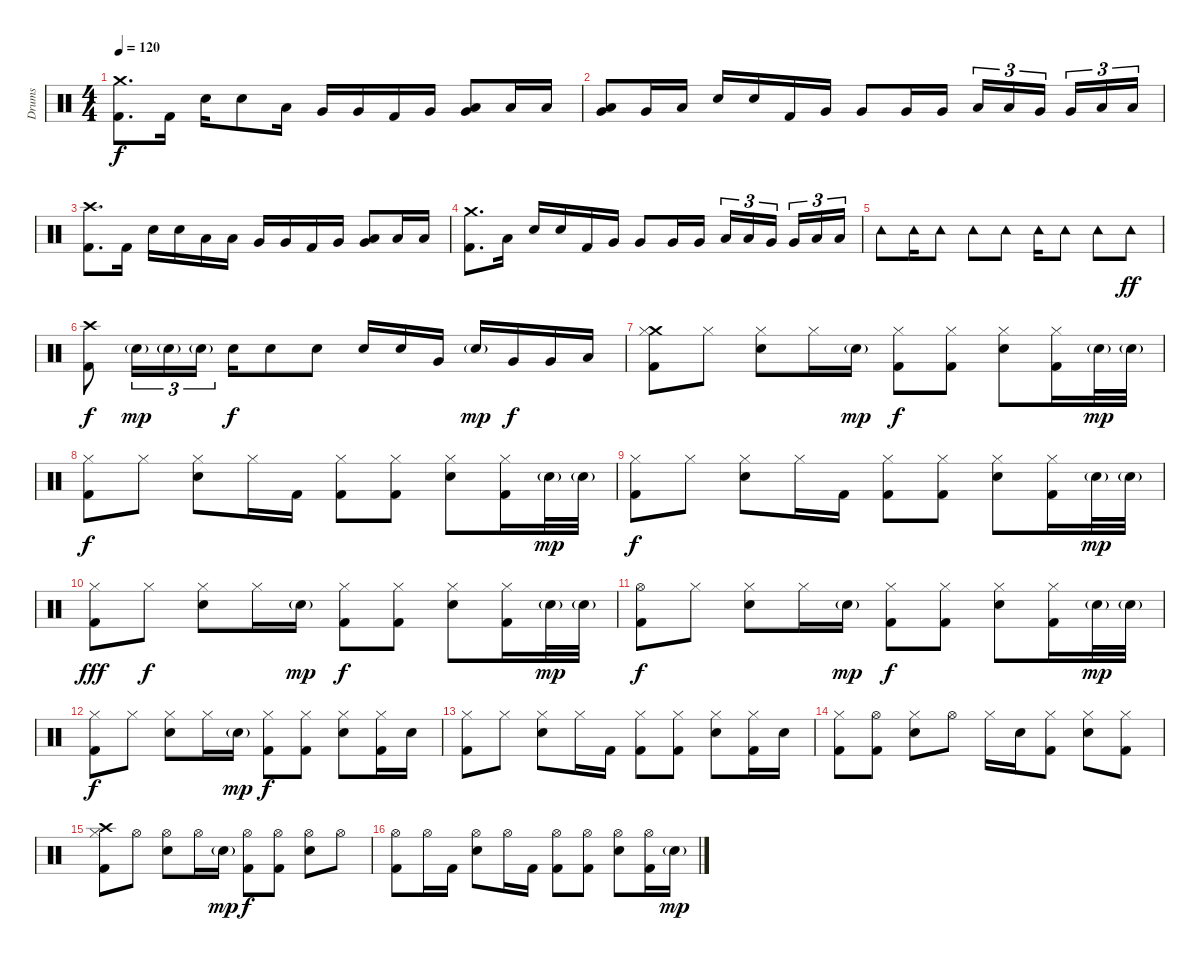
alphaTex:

\track ("Drums" "Drums") {instrument percussion}
\staff {score}
\articulation defaults
\ts (4 4)
\tempo 120
\clef neutral
\ks c
("Crash medium (hit)" "Kick (hit) 2").8{d dy f} "Kick (hit) 2".16 "Electric Snare (hit)".16 "Electric Snare (hit)".8 "Low Floor Tom (hit)".16 "Very Low Tom (hit)".16 "Very Low Tom (hit)".16 "Kick (hit) 2".16 "Very Low Tom (hit)".16 ("Very Low Tom (hit)" "Low Floor Tom (hit)").8 "Low Floor Tom (hit)".16 "Low Floor Tom (hit)".16 |
("Very Low Tom (hit)" "Low Floor Tom (hit)").8 "Very Low Tom (hit)".16 "Low Floor Tom (hit)".16 "Electric Snare (hit)".16 "Electric Snare (hit)".16 "Kick (hit) 2".16 "Very Low Tom (hit)".16 "Very Low Tom (hit)".8 "Very Low Tom (hit)".16 "Very Low Tom (hit)".16 "Low Tom (hit)".16{tu (3 2)} "Low Tom (hit)".16{tu (3 2)} "Very Low Tom (hit)".16{tu (3 2) beam splitsecondary} "Very Low Tom (hit)".16{tu (3 2)} "Low Floor Tom (hit)".16{tu (3 2)} "Low Floor Tom (hit)".16{tu (3 2)} |
("Crash high (hit)" "Kick (hit) 2").8{d} "Kick (hit) 2".16 "Electric Snare (hit)".16 "Electric Snare (hit)".16 "Low Floor Tom (hit)".16 "Low Floor Tom (hit)".16 "Very Low Tom (hit)".16 "Very Low Tom (hit)".16 "Kick (hit) 2".16 "Very Low Tom (hit)".16 ("Very Low Tom (hit)" "Low Floor Tom (hit)").8 "Low Floor Tom (hit)".16 "Low Floor Tom (hit)".16 |
("Crash medium (hit)" "Kick (hit) 2").8{d} "Low Floor Tom (hit)".16 "Electric Snare (hit)".16 "Electric Snare (hit)".16 "Kick (hit) 2".16 "Very Low Tom (hit)".16 "Very Low Tom (hit)".8 "Very Low Tom (hit)".16 "Very Low Tom (hit)".16 "Low Tom (hit)".16{tu (3 2)} "Low Tom (hit)".16{tu (3 2)} "Very Low Tom (hit)".16{tu (3 2) beam splitsecondary} "Very Low Tom (hit)".16{tu (3 2)} "Low Floor Tom (hit)".16{tu (3 2)} "Low Floor Tom (hit)".16{tu (3 2)} |
"Tambourine (hit)".8 "Tambourine (hit)".16 "Tambourine (hit)".8 "Tambourine (hit)".8 "Tambourine (hit)".8 "Tambourine (hit)".16 "Tambourine (hit)".8 "Tambourine (hit)".8 "Tambourine (hit)".8{dy ff} |
("Crash high (hit)" "Kick (hit) 2").8{dy f} "Electric Snare (hit)"{g}.16{tu (3 2) dy mp} "Electric Snare (hit)"{g}.16{tu (3 2)} "Electric Snare (hit)"{g}.16{tu (3 2)} "Electric Snare (hit)".16{dy f} "Electric Snare (hit)".8 "Electric Snare (hit)".8 "Electric Snare (hit)".16 "Electric Snare (hit)".16 "Very Low Tom (hit)".16 "Electric Snare (hit)"{g}.16{dy mp} "Very Low Tom (hit)".16{dy f} "Very Low Tom (hit)".16 "Low Floor Tom (hit)".16 |
("Crash medium (hit)" "Hi-Hat (closed)" "Kick (hit) 2").8 "Hi-Hat (closed)".8 ("Hi-Hat (closed)" "Electric Snare (hit)").8 "Hi-Hat (closed)".16 "Electric Snare (hit)"{g}.16{dy mp} ("Hi-Hat (closed)" "Kick (hit) 2").8{dy f} ("Hi-Hat (closed)" "Kick (hit) 2").8 ("Hi-Hat (closed)" "Electric Snare (hit)").8 ("Hi-Hat (closed)" "Kick (hit) 2").16 "Electric Snare (hit)"{g}.32{dy mp} "Electric Snare (hit)"{g}.32 |
("Hi-Hat (closed)" "Kick (hit) 2").8{dy f} "Hi-Hat (closed)".8 ("Hi-Hat (closed)" "Electric Snare (hit)").8 "Hi-Hat (closed)".16 "Kick (hit) 2".16 ("Hi-Hat (closed)" "Kick (hit) 2").8 ("Hi-Hat (closed)" "Kick (hit) 2").8 ("Hi-Hat (closed)" "Electric Snare (hit)").8 ("Hi-Hat (closed)" "Kick (hit) 2").16 "Electric Snare (hit)"{g}.32{dy mp} "Electric Snare (hit)"{g}.32 |
("Hi-Hat (closed)" "Kick (hit) 2").8{dy f} "Hi-Hat (closed)".8 ("Hi-Hat (closed)" "Electric Snare (hit)").8 "Hi-Hat (closed)".16 "Kick (hit) 2".16 ("Hi-Hat (closed)" "Kick (hit) 2").8 ("Hi-Hat (closed)" "Kick (hit) 2").8 ("Hi-Hat (closed)" "Electric Snare (hit)").8 ("Hi-Hat (closed)" "Kick (hit) 2").16 "Electric Snare (hit)"{g}.32{dy mp} "Electric Snare (hit)"{g}.32 |
("Hi-Hat (closed)" "Kick (hit) 2").8{dy fff} "Hi-Hat (closed)".8{dy f} ("Hi-Hat (closed)" "Electric Snare (hit)").8 "Hi-Hat (closed)".16 "Electric Snare (hit)"{g}.16{dy mp} ("Hi-Hat (closed)" "Kick (hit) 2").8{dy f} ("Hi-Hat (closed)" "Kick (hit) 2").8 ("Hi-Hat (closed)" "Electric Snare (hit)").8 ("Hi-Hat (closed)" "Kick (hit) 2").16 "Electric Snare (hit)"{g}.32{dy mp} "Electric Snare (hit)"{g}.32 |
("Hi-Hat (open)" "Kick (hit) 2").8{dy f} "Hi-Hat (closed)".8 ("Hi-Hat (closed)" "Electric Snare (hit)").8 "Hi-Hat (closed)".16 "Electric Snare (hit)"{g}.16{dy mp} ("Hi-Hat (closed)" "Kick (hit) 2").8{dy f} ("Hi-Hat (closed)" "Kick (hit) 2").8 ("Hi-Hat (closed)" "Electric Snare (hit)").8 ("Hi-Hat (closed)" "Kick (hit) 2").16 "Electric Snare (hit)"{g}.32{dy mp} "Electric Snare (hit)"{g}.32 |
("Hi-Hat (closed)" "Kick (hit) 2").8{dy f} "Hi-Hat (closed)".8 ("Hi-Hat (closed)" "Electric Snare (hit)").8 "Hi-Hat (closed)".16 "Electric Snare (hit)"{g}.16{dy mp} ("Hi-Hat (closed)" "Kick (hit) 2").8{dy f} ("Hi-Hat (closed)" "Kick (hit) 2").8 ("Hi-Hat (closed)" "Electric Snare (hit)").8 ("Hi-Hat (closed)" "Kick (hit) 2").16 "Electric Snare (hit)".16 |
("Hi-Hat (closed)" "Kick (hit) 2").8 "Hi-Hat (closed)".8 ("Hi-Hat (closed)" "Electric Snare (hit)").8 "Hi-Hat (closed)".16 "Kick (hit) 2".16 ("Hi-Hat (closed)" "Kick (hit) 2").8 ("Hi-Hat (closed)" "Kick (hit) 2").8 ("Hi-Hat (closed)" "Electric Snare (hit)").8 ("Hi-Hat (closed)" "Kick (hit) 2").16 "Electric Snare (hit)".16 |
("Hi-Hat (closed)" "Kick (hit) 2").8 ("Hi-Hat (open)" "Kick (hit) 2").8 ("Hi-Hat (closed)" "Electric Snare (hit)").8 "Hi-Hat (open)".8 "Hi-Hat (closed)".16 "Electric Snare (hit)".16 ("Hi-Hat (closed)" "Kick (hit) 2").8 ("Hi-Hat (closed)" "Electric Snare (hit)").8 ("Hi-Hat (closed)" "Kick (hit) 2").8 |
("Crash high (hit)" "Hi-Hat (closed)" "Kick (hit) 2").8 "Hi-Hat (open)".8 ("Hi-Hat (open)" "Electric Snare (hit)").8 "Hi-Hat (open)".16 "Electric Snare (hit)"{g}.16{dy mp} ("Hi-Hat (open)" "Kick (hit) 2").8{dy f} ("Hi-Hat (open)" "Kick (hit) 2").8 ("Hi-Hat (open)" "Electric Snare (hit)").8 "Hi-Hat (open)".8 |
("Hi-Hat (open)" "Kick (hit) 2").8 "Hi-Hat (open)".16 "Kick (hit) 2".16 ("Hi-Hat (open)" "Electric Snare (hit)").8 "Hi-Hat (open)".16 "Kick (hit) 2".16 ("Hi-Hat (open)" "Kick (hit) 2").8 ("Hi-Hat (open)" "Kick (hit) 2").8 ("Hi-Hat (open)" "Electric Snare (hit)").8 ("Hi-Hat (open)" "Kick (hit) 2").16 "Electric Snare (hit)"{g}.16{dy mp}
